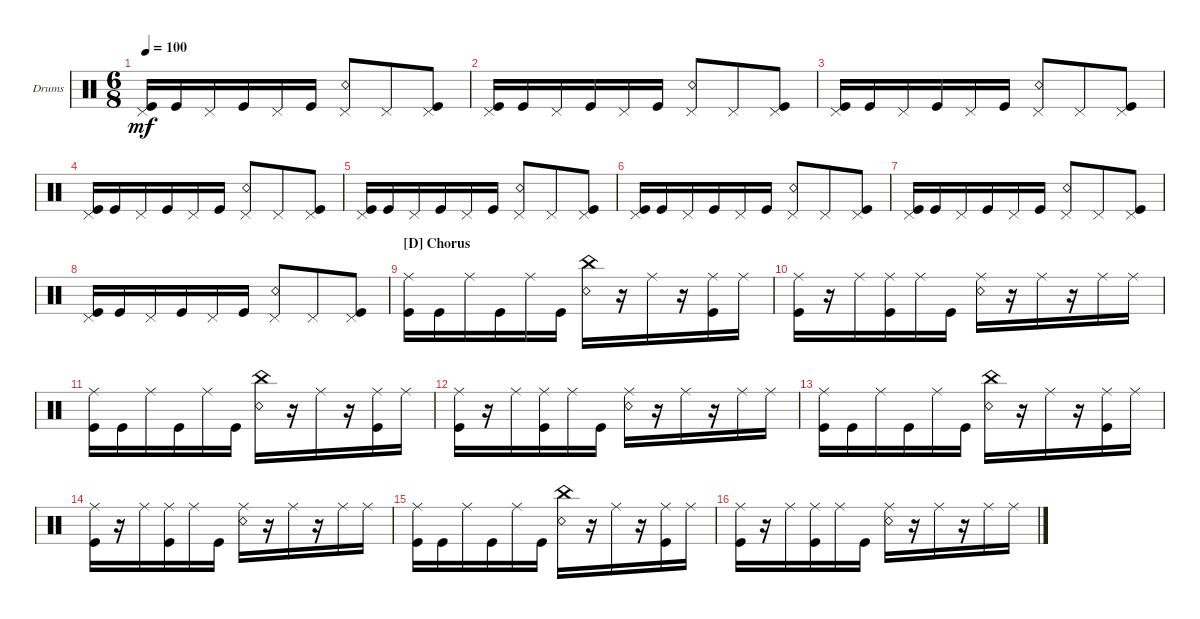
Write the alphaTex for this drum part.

\defaultSystemsLayout 4
\bracketExtendMode groupsimilarinstruments
\firstSystemTrackNameOrientation horizontal
\otherSystemsTrackNameOrientation horizontal
\track ("Drumkit" "Drums") {instrument percussion}
\staff {score}
\articulation defaults
\ts (6 8)
\tempo 100
\clef neutral
\ks aminor
("Pedal Hi-Hat (hit)" "Kick (hit)").16{dy mf} "Kick (hit)".16 "Pedal Hi-Hat (hit)".16 "Kick (hit)".16 "Pedal Hi-Hat (hit)".16 "Kick (hit)".16 ("Pedal Hi-Hat (hit)" "Snare (rim shot)").8 "Pedal Hi-Hat (hit)".8 ("Pedal Hi-Hat (hit)" "Kick (hit)").8 |
("Pedal Hi-Hat (hit)" "Kick (hit)").16 "Kick (hit)".16 "Pedal Hi-Hat (hit)".16 "Kick (hit)".16 "Pedal Hi-Hat (hit)".16 "Kick (hit)".16 ("Pedal Hi-Hat (hit)" "Snare (rim shot)").8 "Pedal Hi-Hat (hit)".8 ("Pedal Hi-Hat (hit)" "Kick (hit)").8 |
("Pedal Hi-Hat (hit)" "Kick (hit)").16 "Kick (hit)".16 "Pedal Hi-Hat (hit)".16 "Kick (hit)".16 "Pedal Hi-Hat (hit)".16 "Kick (hit)".16 ("Pedal Hi-Hat (hit)" "Snare (rim shot)").8 "Pedal Hi-Hat (hit)".8 ("Pedal Hi-Hat (hit)" "Kick (hit)").8 |
("Pedal Hi-Hat (hit)" "Kick (hit)").16 "Kick (hit)".16 "Pedal Hi-Hat (hit)".16 "Kick (hit)".16 "Pedal Hi-Hat (hit)".16 "Kick (hit)".16 ("Pedal Hi-Hat (hit)" "Snare (rim shot)").8 "Pedal Hi-Hat (hit)".8 ("Pedal Hi-Hat (hit)" "Kick (hit)").8 |
("Pedal Hi-Hat (hit)" "Kick (hit)").16 "Kick (hit)".16 "Pedal Hi-Hat (hit)".16 "Kick (hit)".16 "Pedal Hi-Hat (hit)".16 "Kick (hit)".16 ("Pedal Hi-Hat (hit)" "Snare (rim shot)").8 "Pedal Hi-Hat (hit)".8 ("Pedal Hi-Hat (hit)" "Kick (hit)").8 |
("Pedal Hi-Hat (hit)" "Kick (hit)").16 "Kick (hit)".16 "Pedal Hi-Hat (hit)".16 "Kick (hit)".16 "Pedal Hi-Hat (hit)".16 "Kick (hit)".16 ("Pedal Hi-Hat (hit)" "Snare (rim shot)").8 "Pedal Hi-Hat (hit)".8 ("Pedal Hi-Hat (hit)" "Kick (hit)").8 |
("Pedal Hi-Hat (hit)" "Kick (hit)").16 "Kick (hit)".16 "Pedal Hi-Hat (hit)".16 "Kick (hit)".16 "Pedal Hi-Hat (hit)".16 "Kick (hit)".16 ("Pedal Hi-Hat (hit)" "Snare (rim shot)").8 "Pedal Hi-Hat (hit)".8 ("Pedal Hi-Hat (hit)" "Kick (hit)").8 |
("Pedal Hi-Hat (hit)" "Kick (hit)").16 "Kick (hit)".16 "Pedal Hi-Hat (hit)".16 "Kick (hit)".16 "Pedal Hi-Hat (hit)".16 "Kick (hit)".16 ("Pedal Hi-Hat (hit)" "Snare (rim shot)").8 "Pedal Hi-Hat (hit)".8 ("Pedal Hi-Hat (hit)" "Kick (hit)").8 |
\section ("D" "Chorus")
("Ride (middle)" "Kick (hit)").16 "Kick (hit)".16 "Ride (middle)".16 "Kick (hit)".16 "Ride (middle)".16 "Kick (hit)".16 ("Snare (rim shot)" "China (hit)").16 r.16 "Ride (middle)".16 r.16 ("Ride (middle)" "Kick (hit)").16 "Ride (middle)".16 |
("Ride (middle)" "Kick (hit)").16 r.16 "Ride (middle)".16 ("Ride (middle)" "Kick (hit)").16 "Ride (middle)".16 "Kick (hit)".16 ("Ride (middle)" "Snare (rim shot)").16 r.16 "Ride (middle)".16 r.16 "Ride (middle)".16 "Ride (middle)".16 |
("Ride (middle)" "Kick (hit)").16 "Kick (hit)".16 "Ride (middle)".16 "Kick (hit)".16 "Ride (middle)".16 "Kick (hit)".16 ("Snare (rim shot)" "China (hit)").16 r.16 "Ride (middle)".16 r.16 ("Ride (middle)" "Kick (hit)").16 "Ride (middle)".16 |
("Ride (middle)" "Kick (hit)").16 r.16 "Ride (middle)".16 ("Ride (middle)" "Kick (hit)").16 "Ride (middle)".16 "Kick (hit)".16 ("Ride (middle)" "Snare (rim shot)").16 r.16 "Ride (middle)".16 r.16 "Ride (middle)".16 "Ride (middle)".16 |
("Ride (middle)" "Kick (hit)").16 "Kick (hit)".16 "Ride (middle)".16 "Kick (hit)".16 "Ride (middle)".16 "Kick (hit)".16 ("Snare (rim shot)" "China (hit)").16 r.16 "Ride (middle)".16 r.16 ("Ride (middle)" "Kick (hit)").16 "Ride (middle)".16 |
("Ride (middle)" "Kick (hit)").16 r.16 "Ride (middle)".16 ("Ride (middle)" "Kick (hit)").16 "Ride (middle)".16 "Kick (hit)".16 ("Ride (middle)" "Snare (rim shot)").16 r.16 "Ride (middle)".16 r.16 "Ride (middle)".16 "Ride (middle)".16 |
("Ride (middle)" "Kick (hit)").16 "Kick (hit)".16 "Ride (middle)".16 "Kick (hit)".16 "Ride (middle)".16 "Kick (hit)".16 ("Snare (rim shot)" "China (hit)").16 r.16 "Ride (middle)".16 r.16 ("Ride (middle)" "Kick (hit)").16 "Ride (middle)".16 |
("Ride (middle)" "Kick (hit)").16 r.16 "Ride (middle)".16 ("Ride (middle)" "Kick (hit)").16 "Ride (middle)".16 "Kick (hit)".16 ("Ride (middle)" "Snare (rim shot)").16 r.16 "Ride (middle)".16 r.16 "Ride (middle)".16 "Ride (middle)".16
